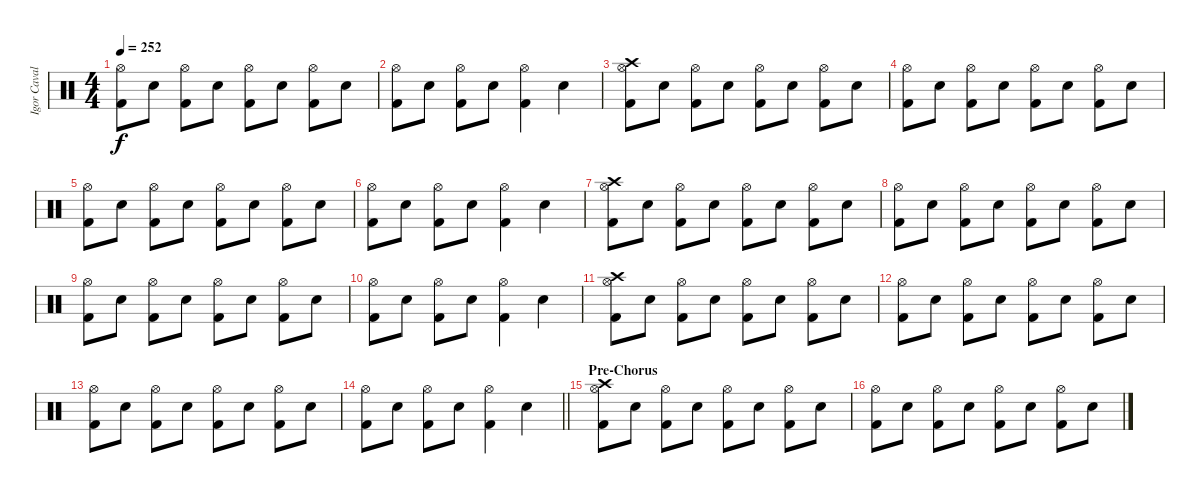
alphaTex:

\track ("Igor Cavalera" "Igor Caval") {instrument percussion}
\staff {score}
\articulation defaults
\ts (4 4)
\tempo 252
\clef neutral
\ks c
("Hi-Hat (open)" "Kick (hit) 2").8{dy f} "Electric Snare (hit)".8 ("Hi-Hat (open)" "Kick (hit) 2").8 "Electric Snare (hit)".8 ("Hi-Hat (open)" "Kick (hit) 2").8 "Electric Snare (hit)".8 ("Hi-Hat (open)" "Kick (hit) 2").8 "Electric Snare (hit)".8 |
("Hi-Hat (open)" "Kick (hit) 2").8 "Electric Snare (hit)".8 ("Hi-Hat (open)" "Kick (hit) 2").8 "Electric Snare (hit)".8 ("Hi-Hat (open)" "Kick (hit) 2").4 "Electric Snare (hit)".4 |
("Crash high (hit)" "Hi-Hat (open)" "Kick (hit) 2").8 "Electric Snare (hit)".8 ("Hi-Hat (open)" "Kick (hit) 2").8 "Electric Snare (hit)".8 ("Hi-Hat (open)" "Kick (hit) 2").8 "Electric Snare (hit)".8 ("Hi-Hat (open)" "Kick (hit) 2").8 "Electric Snare (hit)".8 |
("Hi-Hat (open)" "Kick (hit) 2").8 "Electric Snare (hit)".8 ("Hi-Hat (open)" "Kick (hit) 2").8 "Electric Snare (hit)".8 ("Hi-Hat (open)" "Kick (hit) 2").8 "Electric Snare (hit)".8 ("Hi-Hat (open)" "Kick (hit) 2").8 "Electric Snare (hit)".8 |
("Hi-Hat (open)" "Kick (hit) 2").8 "Electric Snare (hit)".8 ("Hi-Hat (open)" "Kick (hit) 2").8 "Electric Snare (hit)".8 ("Hi-Hat (open)" "Kick (hit) 2").8 "Electric Snare (hit)".8 ("Hi-Hat (open)" "Kick (hit) 2").8 "Electric Snare (hit)".8 |
("Hi-Hat (open)" "Kick (hit) 2").8 "Electric Snare (hit)".8 ("Hi-Hat (open)" "Kick (hit) 2").8 "Electric Snare (hit)".8 ("Hi-Hat (open)" "Kick (hit) 2").4 "Electric Snare (hit)".4 |
("Crash high (hit)" "Hi-Hat (open)" "Kick (hit) 2").8 "Electric Snare (hit)".8 ("Hi-Hat (open)" "Kick (hit) 2").8 "Electric Snare (hit)".8 ("Hi-Hat (open)" "Kick (hit) 2").8 "Electric Snare (hit)".8 ("Hi-Hat (open)" "Kick (hit) 2").8 "Electric Snare (hit)".8 |
("Hi-Hat (open)" "Kick (hit) 2").8 "Electric Snare (hit)".8 ("Hi-Hat (open)" "Kick (hit) 2").8 "Electric Snare (hit)".8 ("Hi-Hat (open)" "Kick (hit) 2").8 "Electric Snare (hit)".8 ("Hi-Hat (open)" "Kick (hit) 2").8 "Electric Snare (hit)".8 |
("Hi-Hat (open)" "Kick (hit) 2").8 "Electric Snare (hit)".8 ("Hi-Hat (open)" "Kick (hit) 2").8 "Electric Snare (hit)".8 ("Hi-Hat (open)" "Kick (hit) 2").8 "Electric Snare (hit)".8 ("Hi-Hat (open)" "Kick (hit) 2").8 "Electric Snare (hit)".8 |
("Hi-Hat (open)" "Kick (hit) 2").8 "Electric Snare (hit)".8 ("Hi-Hat (open)" "Kick (hit) 2").8 "Electric Snare (hit)".8 ("Hi-Hat (open)" "Kick (hit) 2").4 "Electric Snare (hit)".4 |
("Crash high (hit)" "Hi-Hat (open)" "Kick (hit) 2").8 "Electric Snare (hit)".8 ("Hi-Hat (open)" "Kick (hit) 2").8 "Electric Snare (hit)".8 ("Hi-Hat (open)" "Kick (hit) 2").8 "Electric Snare (hit)".8 ("Hi-Hat (open)" "Kick (hit) 2").8 "Electric Snare (hit)".8 |
("Hi-Hat (open)" "Kick (hit) 2").8 "Electric Snare (hit)".8 ("Hi-Hat (open)" "Kick (hit) 2").8 "Electric Snare (hit)".8 ("Hi-Hat (open)" "Kick (hit) 2").8 "Electric Snare (hit)".8 ("Hi-Hat (open)" "Kick (hit) 2").8 "Electric Snare (hit)".8 |
("Hi-Hat (open)" "Kick (hit) 2").8 "Electric Snare (hit)".8 ("Hi-Hat (open)" "Kick (hit) 2").8 "Electric Snare (hit)".8 ("Hi-Hat (open)" "Kick (hit) 2").8 "Electric Snare (hit)".8 ("Hi-Hat (open)" "Kick (hit) 2").8 "Electric Snare (hit)".8 |
\barLineRight lightlight
("Hi-Hat (open)" "Kick (hit) 2").8 "Electric Snare (hit)".8 ("Hi-Hat (open)" "Kick (hit) 2").8 "Electric Snare (hit)".8 ("Hi-Hat (open)" "Kick (hit) 2").4 "Electric Snare (hit)".4 |
\section ("" "Pre-Chorus")
("Crash high (hit)" "Hi-Hat (open)" "Kick (hit) 2").8 "Electric Snare (hit)".8 ("Hi-Hat (open)" "Kick (hit) 2").8 "Electric Snare (hit)".8 ("Hi-Hat (open)" "Kick (hit) 2").8 "Electric Snare (hit)".8 ("Hi-Hat (open)" "Kick (hit) 2").8 "Electric Snare (hit)".8 |
("Hi-Hat (open)" "Kick (hit) 2").8 "Electric Snare (hit)".8 ("Hi-Hat (open)" "Kick (hit) 2").8 "Electric Snare (hit)".8 ("Hi-Hat (open)" "Kick (hit) 2").8 "Electric Snare (hit)".8 ("Hi-Hat (open)" "Kick (hit) 2").8 "Electric Snare (hit)".8
